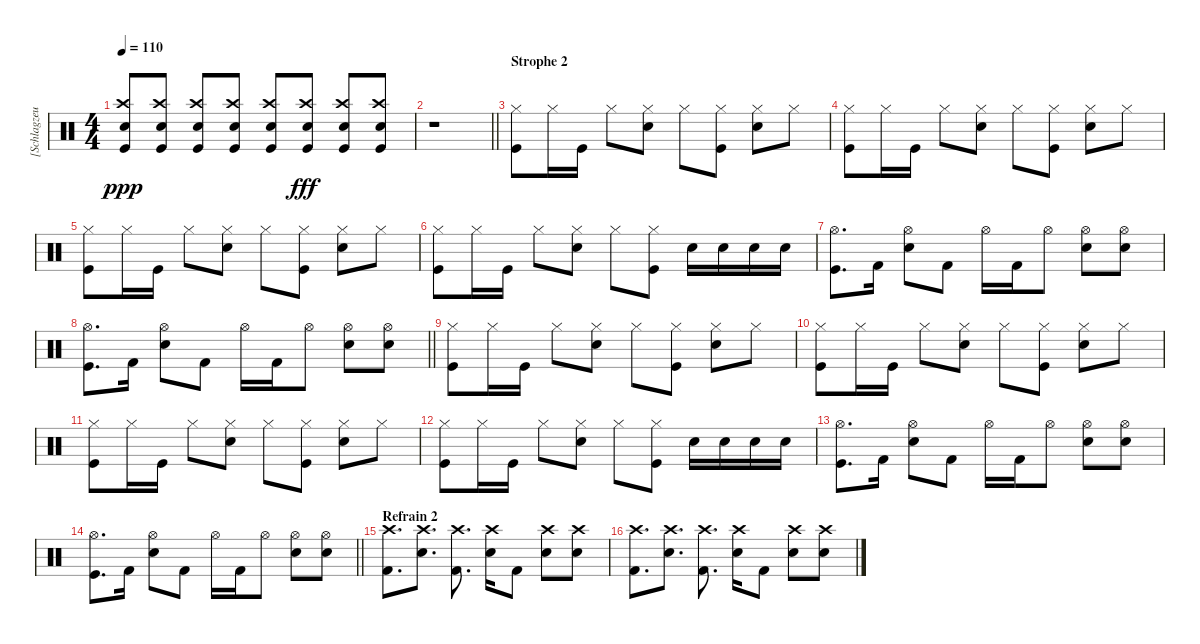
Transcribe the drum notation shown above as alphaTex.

\track ("[Schlagzeug]" "[Schlagzeu") {instrument percussion}
\staff {score}
\articulation defaults
\ts (4 4)
\tempo 110
\clef neutral
\ks c
("Electric Snare (hit)" "Crash high (hit)" "Kick (hit)").8{dy ppp} ("Electric Snare (hit)" "Crash high (hit)" "Kick (hit)").8 ("Electric Snare (hit)" "Crash high (hit)" "Kick (hit)").8 ("Electric Snare (hit)" "Crash high (hit)" "Kick (hit)").8 ("Electric Snare (hit)" "Crash high (hit)" "Kick (hit)").8 ("Electric Snare (hit)" "Crash high (hit)" "Kick (hit)").8{dy fff} ("Electric Snare (hit)" "Crash high (hit)" "Kick (hit)").8 ("Electric Snare (hit)" "Crash high (hit)" "Kick (hit)").8 |
\barLineRight lightlight
r.1{volume 0} |
\section ("" "Strophe 2")
("Hi-Hat (closed)" "Kick (hit)").8{volume 16} "Hi-Hat (closed)".16 "Kick (hit)".16 "Hi-Hat (closed)".8 ("Hi-Hat (closed)" "Electric Snare (hit)").8 "Hi-Hat (closed)".8 ("Hi-Hat (closed)" "Kick (hit)").8 ("Hi-Hat (closed)" "Electric Snare (hit)").8 "Hi-Hat (closed)".8 |
("Hi-Hat (closed)" "Kick (hit)").8 "Hi-Hat (closed)".16 "Kick (hit)".16 "Hi-Hat (closed)".8 ("Hi-Hat (closed)" "Electric Snare (hit)").8 "Hi-Hat (closed)".8 ("Hi-Hat (closed)" "Kick (hit)").8 ("Hi-Hat (closed)" "Electric Snare (hit)").8 "Hi-Hat (closed)".8 |
("Hi-Hat (closed)" "Kick (hit)").8 "Hi-Hat (closed)".16 "Kick (hit)".16 "Hi-Hat (closed)".8 ("Hi-Hat (closed)" "Electric Snare (hit)").8 "Hi-Hat (closed)".8 ("Hi-Hat (closed)" "Kick (hit)").8 ("Hi-Hat (closed)" "Electric Snare (hit)").8 "Hi-Hat (closed)".8 |
("Hi-Hat (closed)" "Kick (hit)").8 "Hi-Hat (closed)".16 "Kick (hit)".16 "Hi-Hat (closed)".8 ("Hi-Hat (closed)" "Electric Snare (hit)").8 "Hi-Hat (closed)".8 ("Hi-Hat (closed)" "Kick (hit)").8 "Electric Snare (hit)".16 "Electric Snare (hit)".16 "Electric Snare (hit)".16 "Electric Snare (hit)".16 |
("Kick (hit)" "Hi-Hat (open)").8{d} "Kick (hit) 2".16 ("Hi-Hat (open)" "Electric Snare (hit)").8 "Kick (hit) 2".8 "Hi-Hat (open)".16 "Kick (hit) 2".16 "Hi-Hat (open)".8 ("Hi-Hat (open)" "Electric Snare (hit)").8 ("Hi-Hat (open)" "Electric Snare (hit)").8 |
\barLineRight lightlight
("Kick (hit)" "Hi-Hat (open)").8{d} "Kick (hit) 2".16 ("Hi-Hat (open)" "Electric Snare (hit)").8 "Kick (hit) 2".8 "Hi-Hat (open)".16 "Kick (hit) 2".16 "Hi-Hat (open)".8 ("Hi-Hat (open)" "Electric Snare (hit)").8 ("Hi-Hat (open)" "Electric Snare (hit)").8 |
("Hi-Hat (closed)" "Kick (hit)").8 "Hi-Hat (closed)".16 "Kick (hit)".16 "Hi-Hat (closed)".8 ("Hi-Hat (closed)" "Electric Snare (hit)").8 "Hi-Hat (closed)".8 ("Hi-Hat (closed)" "Kick (hit)").8 ("Hi-Hat (closed)" "Electric Snare (hit)").8 "Hi-Hat (closed)".8 |
("Hi-Hat (closed)" "Kick (hit)").8 "Hi-Hat (closed)".16 "Kick (hit)".16 "Hi-Hat (closed)".8 ("Hi-Hat (closed)" "Electric Snare (hit)").8 "Hi-Hat (closed)".8 ("Hi-Hat (closed)" "Kick (hit)").8 ("Hi-Hat (closed)" "Electric Snare (hit)").8 "Hi-Hat (closed)".8 |
("Hi-Hat (closed)" "Kick (hit)").8 "Hi-Hat (closed)".16 "Kick (hit)".16 "Hi-Hat (closed)".8 ("Hi-Hat (closed)" "Electric Snare (hit)").8 "Hi-Hat (closed)".8 ("Hi-Hat (closed)" "Kick (hit)").8 ("Hi-Hat (closed)" "Electric Snare (hit)").8 "Hi-Hat (closed)".8 |
("Hi-Hat (closed)" "Kick (hit)").8 "Hi-Hat (closed)".16 "Kick (hit)".16 "Hi-Hat (closed)".8 ("Hi-Hat (closed)" "Electric Snare (hit)").8 "Hi-Hat (closed)".8 ("Hi-Hat (closed)" "Kick (hit)").8 "Electric Snare (hit)".16 "Electric Snare (hit)".16 "Electric Snare (hit)".16 "Electric Snare (hit)".16 |
("Kick (hit)" "Hi-Hat (open)").8{d} "Kick (hit) 2".16 ("Hi-Hat (open)" "Electric Snare (hit)").8 "Kick (hit) 2".8 "Hi-Hat (open)".16 "Kick (hit) 2".16 "Hi-Hat (open)".8 ("Hi-Hat (open)" "Electric Snare (hit)").8 ("Hi-Hat (open)" "Electric Snare (hit)").8 |
\barLineRight lightlight
("Kick (hit)" "Hi-Hat (open)").8{d} "Kick (hit) 2".16 ("Hi-Hat (open)" "Electric Snare (hit)").8 "Kick (hit) 2".8 "Hi-Hat (open)".16 "Kick (hit) 2".16 "Hi-Hat (open)".8 ("Hi-Hat (open)" "Electric Snare (hit)").8 ("Hi-Hat (open)" "Electric Snare (hit)").8 |
\section ("" "Refrain 2")
("Crash high (hit)" "Kick (hit) 2").8{d} ("Crash high (hit)" "Electric Snare (hit)").8{d} ("Crash high (hit)" "Kick (hit) 2").8{d} ("Crash high (hit)" "Electric Snare (hit)").16 "Kick (hit) 2".8 ("Electric Snare (hit)" "Crash high (hit)").8 ("Electric Snare (hit)" "Crash high (hit)").8 |
("Crash high (hit)" "Kick (hit) 2").8{d} ("Crash high (hit)" "Electric Snare (hit)").8{d} ("Crash high (hit)" "Kick (hit) 2").8{d} ("Crash high (hit)" "Electric Snare (hit)").16 "Kick (hit) 2".8 ("Electric Snare (hit)" "Crash high (hit)").8 ("Electric Snare (hit)" "Crash high (hit)").8
